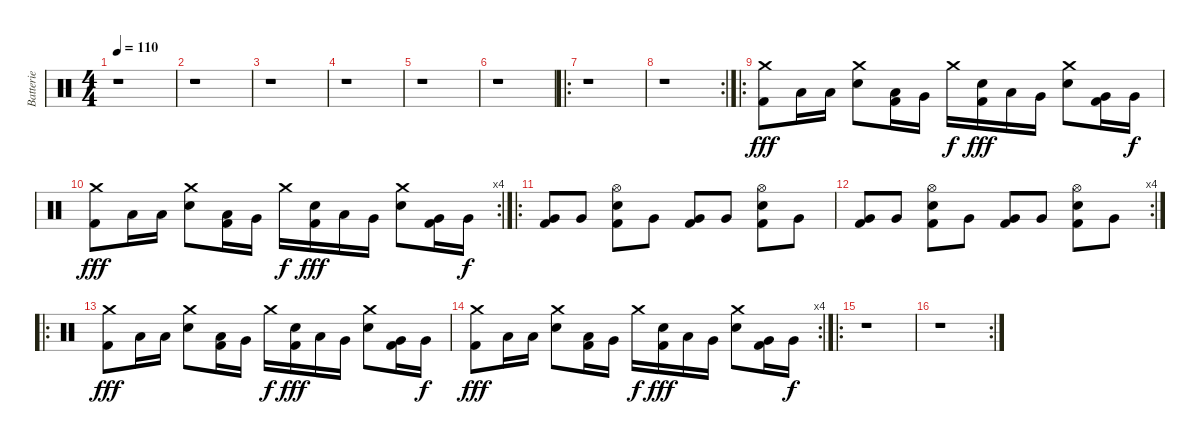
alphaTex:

\track ("Batterie" "Batterie") {instrument percussion}
\staff {score}
\articulation defaults
\ts (4 4)
\tempo 110
\clef neutral
\ks c
r.1{dy f} |
r.1 |
r.1 |
r.1 |
r.1 |
r.1 |
\ro
r.1 |
\rc 2
r.1 |
\ro
("Crash medium (hit)" "Kick (hit) 2").8{dy fff} "Low Tom (hit)".16 "Low Tom (hit)".16 ("Crash medium (hit)" "Snare (hit) 2").8 ("Low Tom (hit)" "Kick (hit) 2").16 "Very Low Tom (hit)".16 "Crash medium (hit)".16{dy f} ("Snare (hit) 2" "Kick (hit) 2").16{dy fff} "Low Tom (hit)".16 "Very Low Tom (hit)".16 ("Crash medium (hit)" "Snare (hit) 2").8 ("Very Low Tom (hit)" "Kick (hit) 2").16 "Very Low Tom (hit)".16{dy f} |
\rc 4
("Crash medium (hit)" "Kick (hit) 2").8{dy fff} "Low Tom (hit)".16 "Low Tom (hit)".16 ("Crash medium (hit)" "Snare (hit) 2").8 ("Low Tom (hit)" "Kick (hit) 2").16 "Very Low Tom (hit)".16 "Crash medium (hit)".16{dy f} ("Snare (hit) 2" "Kick (hit) 2").16{dy fff} "Low Tom (hit)".16 "Very Low Tom (hit)".16 ("Crash medium (hit)" "Snare (hit) 2").8 ("Very Low Tom (hit)" "Kick (hit) 2").16 "Very Low Tom (hit)".16{dy f} |
\ro
("Very Low Tom (hit)" "Kick (hit) 2").8 "Very Low Tom (hit)".8 ("Hi-Hat (open)" "Snare (hit) 2" "Kick (hit) 2").8 "Very Low Tom (hit)".8 ("Very Low Tom (hit)" "Kick (hit) 2").8 "Very Low Tom (hit)".8 ("Hi-Hat (open)" "Snare (hit) 2" "Kick (hit) 2").8 "Very Low Tom (hit)".8 |
\rc 4
("Very Low Tom (hit)" "Kick (hit) 2").8 "Very Low Tom (hit)".8 ("Hi-Hat (open)" "Snare (hit) 2" "Kick (hit) 2").8 "Very Low Tom (hit)".8 ("Very Low Tom (hit)" "Kick (hit) 2").8 "Very Low Tom (hit)".8 ("Hi-Hat (open)" "Snare (hit) 2" "Kick (hit) 2").8 "Very Low Tom (hit)".8 |
\ro
("Crash medium (hit)" "Kick (hit) 2").8{dy fff} "Low Tom (hit)".16 "Low Tom (hit)".16 ("Crash medium (hit)" "Snare (hit) 2").8 ("Low Tom (hit)" "Kick (hit) 2").16 "Very Low Tom (hit)".16 "Crash medium (hit)".16{dy f} ("Snare (hit) 2" "Kick (hit) 2").16{dy fff} "Low Tom (hit)".16 "Very Low Tom (hit)".16 ("Crash medium (hit)" "Snare (hit) 2").8 ("Very Low Tom (hit)" "Kick (hit) 2").16 "Very Low Tom (hit)".16{dy f} |
\rc 4
("Crash medium (hit)" "Kick (hit) 2").8{dy fff} "Low Tom (hit)".16 "Low Tom (hit)".16 ("Crash medium (hit)" "Snare (hit) 2").8 ("Low Tom (hit)" "Kick (hit) 2").16 "Very Low Tom (hit)".16 "Crash medium (hit)".16{dy f} ("Snare (hit) 2" "Kick (hit) 2").16{dy fff} "Low Tom (hit)".16 "Very Low Tom (hit)".16 ("Crash medium (hit)" "Snare (hit) 2").8 ("Very Low Tom (hit)" "Kick (hit) 2").16 "Very Low Tom (hit)".16{dy f} |
\ro
r.1 |
\rc 2
r.1
